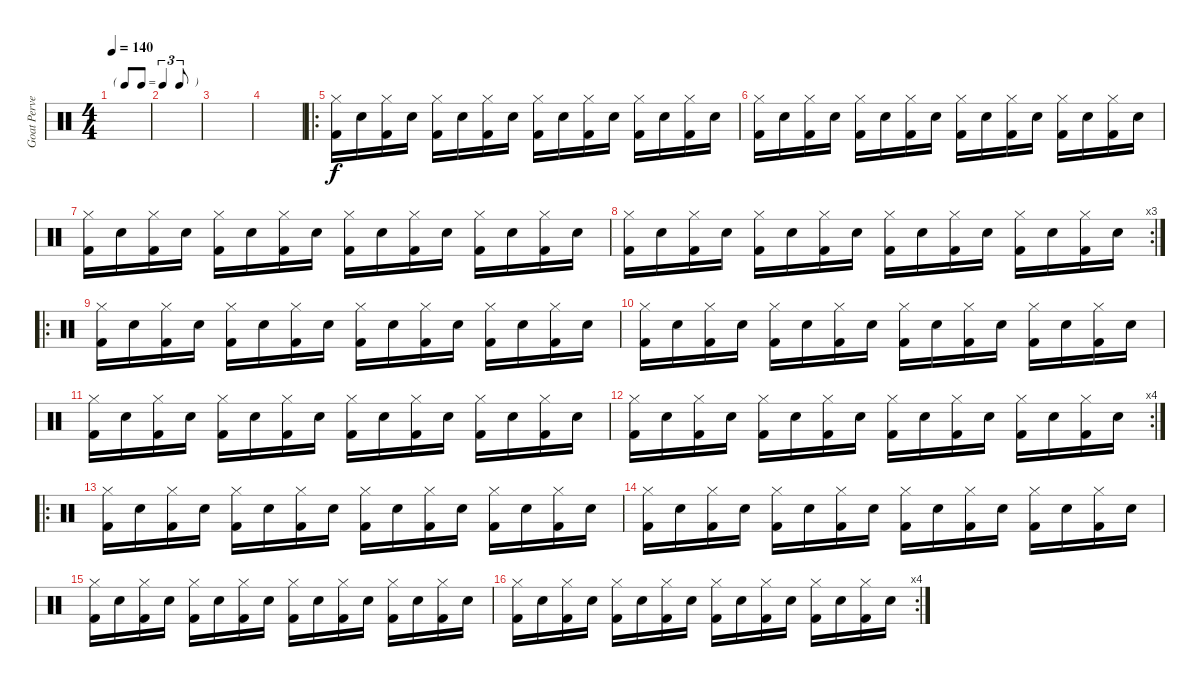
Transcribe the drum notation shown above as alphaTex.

\track ("Goat Pervertor" "Goat Perve") {instrument percussion}
\staff {score}
\articulation defaults
\ts (4 4)
\tf triplet8th
\tempo 140
\clef neutral
\ks c
|
|
|
|
\ro
("Hi-Hat (closed)" "Kick (hit) 2").16 "Snare (hit) 2".16 ("Hi-Hat (closed)" "Kick (hit) 2").16 "Snare (hit) 2".16 ("Hi-Hat (closed)" "Kick (hit) 2").16 "Snare (hit) 2".16 ("Hi-Hat (closed)" "Kick (hit) 2").16 "Snare (hit) 2".16 ("Hi-Hat (closed)" "Kick (hit) 2").16 "Snare (hit) 2".16 ("Hi-Hat (closed)" "Kick (hit) 2").16 "Snare (hit) 2".16 ("Hi-Hat (closed)" "Kick (hit) 2").16 "Snare (hit) 2".16 ("Hi-Hat (closed)" "Kick (hit) 2").16 "Snare (hit) 2".16 |
("Hi-Hat (closed)" "Kick (hit) 2").16 "Snare (hit) 2".16 ("Hi-Hat (closed)" "Kick (hit) 2").16 "Snare (hit) 2".16 ("Hi-Hat (closed)" "Kick (hit) 2").16 "Snare (hit) 2".16 ("Hi-Hat (closed)" "Kick (hit) 2").16 "Snare (hit) 2".16 ("Hi-Hat (closed)" "Kick (hit) 2").16 "Snare (hit) 2".16 ("Hi-Hat (closed)" "Kick (hit) 2").16 "Snare (hit) 2".16 ("Hi-Hat (closed)" "Kick (hit) 2").16 "Snare (hit) 2".16 ("Hi-Hat (closed)" "Kick (hit) 2").16 "Snare (hit) 2".16 |
("Hi-Hat (closed)" "Kick (hit) 2").16 "Snare (hit) 2".16 ("Hi-Hat (closed)" "Kick (hit) 2").16 "Snare (hit) 2".16 ("Hi-Hat (closed)" "Kick (hit) 2").16 "Snare (hit) 2".16 ("Hi-Hat (closed)" "Kick (hit) 2").16 "Snare (hit) 2".16 ("Hi-Hat (closed)" "Kick (hit) 2").16 "Snare (hit) 2".16 ("Hi-Hat (closed)" "Kick (hit) 2").16 "Snare (hit) 2".16 ("Hi-Hat (closed)" "Kick (hit) 2").16 "Snare (hit) 2".16 ("Hi-Hat (closed)" "Kick (hit) 2").16 "Snare (hit) 2".16 |
\rc 3
("Hi-Hat (closed)" "Kick (hit) 2").16 "Snare (hit) 2".16 ("Hi-Hat (closed)" "Kick (hit) 2").16 "Snare (hit) 2".16 ("Hi-Hat (closed)" "Kick (hit) 2").16 "Snare (hit) 2".16 ("Hi-Hat (closed)" "Kick (hit) 2").16 "Snare (hit) 2".16 ("Hi-Hat (closed)" "Kick (hit) 2").16 "Snare (hit) 2".16 ("Hi-Hat (closed)" "Kick (hit) 2").16 "Snare (hit) 2".16 ("Hi-Hat (closed)" "Kick (hit) 2").16 "Snare (hit) 2".16 ("Hi-Hat (closed)" "Kick (hit) 2").16 "Snare (hit) 2".16 |
\ro
("Hi-Hat (closed)" "Kick (hit) 2").16 "Snare (hit) 2".16 ("Hi-Hat (closed)" "Kick (hit) 2").16 "Snare (hit) 2".16 ("Hi-Hat (closed)" "Kick (hit) 2").16 "Snare (hit) 2".16 ("Hi-Hat (closed)" "Kick (hit) 2").16 "Snare (hit) 2".16 ("Hi-Hat (closed)" "Kick (hit) 2").16 "Snare (hit) 2".16 ("Hi-Hat (closed)" "Kick (hit) 2").16 "Snare (hit) 2".16 ("Hi-Hat (closed)" "Kick (hit) 2").16 "Snare (hit) 2".16 ("Hi-Hat (closed)" "Kick (hit) 2").16 "Snare (hit) 2".16 |
("Hi-Hat (closed)" "Kick (hit) 2").16 "Snare (hit) 2".16 ("Hi-Hat (closed)" "Kick (hit) 2").16 "Snare (hit) 2".16 ("Hi-Hat (closed)" "Kick (hit) 2").16 "Snare (hit) 2".16 ("Hi-Hat (closed)" "Kick (hit) 2").16 "Snare (hit) 2".16 ("Hi-Hat (closed)" "Kick (hit) 2").16 "Snare (hit) 2".16 ("Hi-Hat (closed)" "Kick (hit) 2").16 "Snare (hit) 2".16 ("Hi-Hat (closed)" "Kick (hit) 2").16 "Snare (hit) 2".16 ("Hi-Hat (closed)" "Kick (hit) 2").16 "Snare (hit) 2".16 |
("Hi-Hat (closed)" "Kick (hit) 2").16 "Snare (hit) 2".16 ("Hi-Hat (closed)" "Kick (hit) 2").16 "Snare (hit) 2".16 ("Hi-Hat (closed)" "Kick (hit) 2").16 "Snare (hit) 2".16 ("Hi-Hat (closed)" "Kick (hit) 2").16 "Snare (hit) 2".16 ("Hi-Hat (closed)" "Kick (hit) 2").16 "Snare (hit) 2".16 ("Hi-Hat (closed)" "Kick (hit) 2").16 "Snare (hit) 2".16 ("Hi-Hat (closed)" "Kick (hit) 2").16 "Snare (hit) 2".16 ("Hi-Hat (closed)" "Kick (hit) 2").16 "Snare (hit) 2".16 |
\rc 4
("Hi-Hat (closed)" "Kick (hit) 2").16 "Snare (hit) 2".16 ("Hi-Hat (closed)" "Kick (hit) 2").16 "Snare (hit) 2".16 ("Hi-Hat (closed)" "Kick (hit) 2").16 "Snare (hit) 2".16 ("Hi-Hat (closed)" "Kick (hit) 2").16 "Snare (hit) 2".16 ("Hi-Hat (closed)" "Kick (hit) 2").16 "Snare (hit) 2".16 ("Hi-Hat (closed)" "Kick (hit) 2").16 "Snare (hit) 2".16 ("Hi-Hat (closed)" "Kick (hit) 2").16 "Snare (hit) 2".16 ("Hi-Hat (closed)" "Kick (hit) 2").16 "Snare (hit) 2".16 |
\ro
("Hi-Hat (closed)" "Kick (hit) 2").16 "Snare (hit) 2".16 ("Hi-Hat (closed)" "Kick (hit) 2").16 "Snare (hit) 2".16 ("Hi-Hat (closed)" "Kick (hit) 2").16 "Snare (hit) 2".16 ("Hi-Hat (closed)" "Kick (hit) 2").16 "Snare (hit) 2".16 ("Hi-Hat (closed)" "Kick (hit) 2").16 "Snare (hit) 2".16 ("Hi-Hat (closed)" "Kick (hit) 2").16 "Snare (hit) 2".16 ("Hi-Hat (closed)" "Kick (hit) 2").16 "Snare (hit) 2".16 ("Hi-Hat (closed)" "Kick (hit) 2").16 "Snare (hit) 2".16 |
("Hi-Hat (closed)" "Kick (hit) 2").16 "Snare (hit) 2".16 ("Hi-Hat (closed)" "Kick (hit) 2").16 "Snare (hit) 2".16 ("Hi-Hat (closed)" "Kick (hit) 2").16 "Snare (hit) 2".16 ("Hi-Hat (closed)" "Kick (hit) 2").16 "Snare (hit) 2".16 ("Hi-Hat (closed)" "Kick (hit) 2").16 "Snare (hit) 2".16 ("Hi-Hat (closed)" "Kick (hit) 2").16 "Snare (hit) 2".16 ("Hi-Hat (closed)" "Kick (hit) 2").16 "Snare (hit) 2".16 ("Hi-Hat (closed)" "Kick (hit) 2").16 "Snare (hit) 2".16 |
("Hi-Hat (closed)" "Kick (hit) 2").16 "Snare (hit) 2".16 ("Hi-Hat (closed)" "Kick (hit) 2").16 "Snare (hit) 2".16 ("Hi-Hat (closed)" "Kick (hit) 2").16 "Snare (hit) 2".16 ("Hi-Hat (closed)" "Kick (hit) 2").16 "Snare (hit) 2".16 ("Hi-Hat (closed)" "Kick (hit) 2").16 "Snare (hit) 2".16 ("Hi-Hat (closed)" "Kick (hit) 2").16 "Snare (hit) 2".16 ("Hi-Hat (closed)" "Kick (hit) 2").16 "Snare (hit) 2".16 ("Hi-Hat (closed)" "Kick (hit) 2").16 "Snare (hit) 2".16 |
\rc 4
("Hi-Hat (closed)" "Kick (hit) 2").16 "Snare (hit) 2".16 ("Hi-Hat (closed)" "Kick (hit) 2").16 "Snare (hit) 2".16 ("Hi-Hat (closed)" "Kick (hit) 2").16 "Snare (hit) 2".16 ("Hi-Hat (closed)" "Kick (hit) 2").16 "Snare (hit) 2".16 ("Hi-Hat (closed)" "Kick (hit) 2").16 "Snare (hit) 2".16 ("Hi-Hat (closed)" "Kick (hit) 2").16 "Snare (hit) 2".16 ("Hi-Hat (closed)" "Kick (hit) 2").16 "Snare (hit) 2".16 ("Hi-Hat (closed)" "Kick (hit) 2").16 "Snare (hit) 2".16
